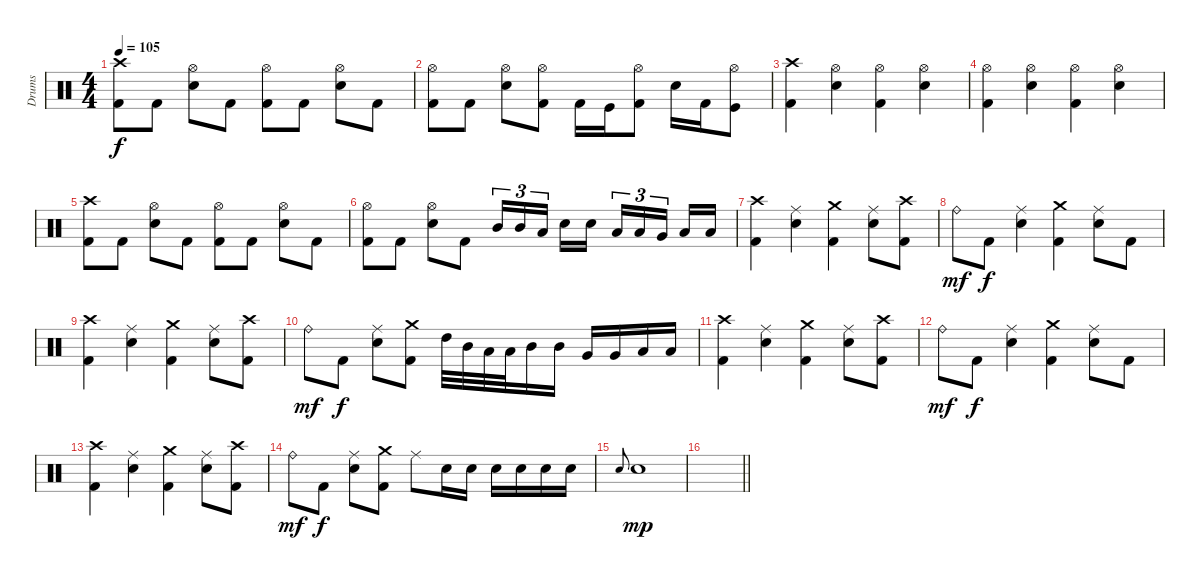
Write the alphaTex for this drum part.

\track ("Drums" "Drums") {instrument percussion}
\staff {score}
\articulation defaults
\ts (4 4)
\tempo 105
\clef neutral
\ks c
("Crash high (hit)" "Kick (hit) 2").8{dy f} "Kick (hit) 2".8 ("Hi-Hat (open)" "Snare (hit) 2").8 "Kick (hit) 2".8 ("Hi-Hat (open)" "Kick (hit) 2").8 "Kick (hit) 2".8 ("Hi-Hat (open)" "Snare (hit) 2").8 "Kick (hit) 2".8 |
("Hi-Hat (open)" "Kick (hit) 2").8 "Kick (hit) 2".8 ("Hi-Hat (open)" "Snare (hit) 2").8 ("Hi-Hat (open)" "Kick (hit) 2").8 "Kick (hit) 2".16 "Kick (hit)".16 ("Hi-Hat (open)" "Kick (hit) 2").8 "Snare (hit) 2".16 "Kick (hit) 2".16 ("Hi-Hat (open)" "Kick (hit)").8 |
("Crash high (hit)" "Kick (hit) 2").4 ("Hi-Hat (open)" "Snare (hit) 2").4 ("Hi-Hat (open)" "Kick (hit) 2").4 ("Hi-Hat (open)" "Snare (hit) 2").4 |
("Hi-Hat (open)" "Kick (hit) 2").4 ("Hi-Hat (open)" "Snare (hit) 2").4 ("Hi-Hat (open)" "Kick (hit) 2").4 ("Hi-Hat (open)" "Snare (hit) 2").4 |
("Crash high (hit)" "Kick (hit) 2").8 "Kick (hit) 2".8 ("Hi-Hat (open)" "Snare (hit) 2").8 "Kick (hit) 2".8 ("Hi-Hat (open)" "Kick (hit) 2").8 "Kick (hit) 2".8 ("Hi-Hat (open)" "Snare (hit) 2").8 "Kick (hit) 2".8 |
("Hi-Hat (open)" "Kick (hit) 2").8 "Kick (hit) 2".8 ("Hi-Hat (open)" "Snare (hit) 2").8 "Kick (hit) 2".8 "Mid Tom (hit)".16{tu (3 2)} "Mid Tom (hit)".16{tu (3 2)} "Low Tom (hit)".16{tu (3 2) beam splitsecondary} "Snare (hit) 2".16 "Snare (hit) 2".16 "Low Tom (hit)".16{tu (3 2)} "Low Tom (hit)".16{tu (3 2)} "Very Low Tom (hit)".16{tu (3 2) beam splitsecondary} "Low Floor Tom (hit)".16 "Low Floor Tom (hit)".16 |
("Crash high (hit)" "Kick (hit) 2").4 ("Ride (middle)" "Snare (hit) 2").4 ("Crash medium (hit)" "Kick (hit) 2").4 ("Ride (middle)" "Snare (hit) 2").8 ("Crash high (hit)" "Kick (hit) 2").8 |
"Ride (bell)".8{dy mf} "Kick (hit) 2".8{dy f} ("Ride (middle)" "Snare (hit) 2").4 ("Crash medium (hit)" "Kick (hit) 2").4 ("Ride (middle)" "Snare (hit) 2").8 "Kick (hit) 2".8 |
("Crash high (hit)" "Kick (hit) 2").4 ("Ride (middle)" "Snare (hit) 2").4 ("Crash medium (hit)" "Kick (hit) 2").4 ("Ride (middle)" "Snare (hit) 2").8 ("Crash high (hit)" "Kick (hit) 2").8 |
"Ride (bell)".8{dy mf} "Kick (hit) 2".8{dy f} ("Ride (middle)" "Snare (hit) 2").8 ("Crash medium (hit)" "Kick (hit) 2").8 "High Tom (hit)".32 "Mid Tom (hit)".32 "Low Tom (hit)".32 "Low Tom (hit)".32 "Mid Tom (hit)".16 "Mid Tom (hit)".16 "Very Low Tom (hit)".16 "Very Low Tom (hit)".16 "Low Floor Tom (hit)".16 "Low Floor Tom (hit)".16 |
("Crash high (hit)" "Kick (hit) 2").4 ("Ride (middle)" "Snare (hit) 2").4 ("Crash medium (hit)" "Kick (hit) 2").4 ("Ride (middle)" "Snare (hit) 2").8 ("Crash high (hit)" "Kick (hit) 2").8 |
"Ride (bell)".8{dy mf} "Kick (hit) 2".8{dy f} ("Ride (middle)" "Snare (hit) 2").4 ("Crash medium (hit)" "Kick (hit) 2").4 ("Ride (middle)" "Snare (hit) 2").8 "Kick (hit) 2".8 |
("Crash high (hit)" "Kick (hit) 2").4 ("Ride (middle)" "Snare (hit) 2").4 ("Crash medium (hit)" "Kick (hit) 2").4 ("Ride (middle)" "Snare (hit) 2").8 ("Crash high (hit)" "Kick (hit) 2").8 |
"Ride (bell)".8{dy mf} "Kick (hit) 2".8{dy f} ("Ride (middle)" "Snare (hit) 2").8 ("Crash medium (hit)" "Kick (hit) 2").8 "Ride (middle)".8 "Snare (hit) 2".16 "Snare (hit) 2".16 "Snare (hit) 2".16 "Snare (hit) 2".16 "Snare (hit) 2".16 "Snare (hit) 2".16 |
"Snare (hit) 2".8{gr onbeat} "Snare (hit) 2".1{dy mp} |
\barLineRight lightlight
